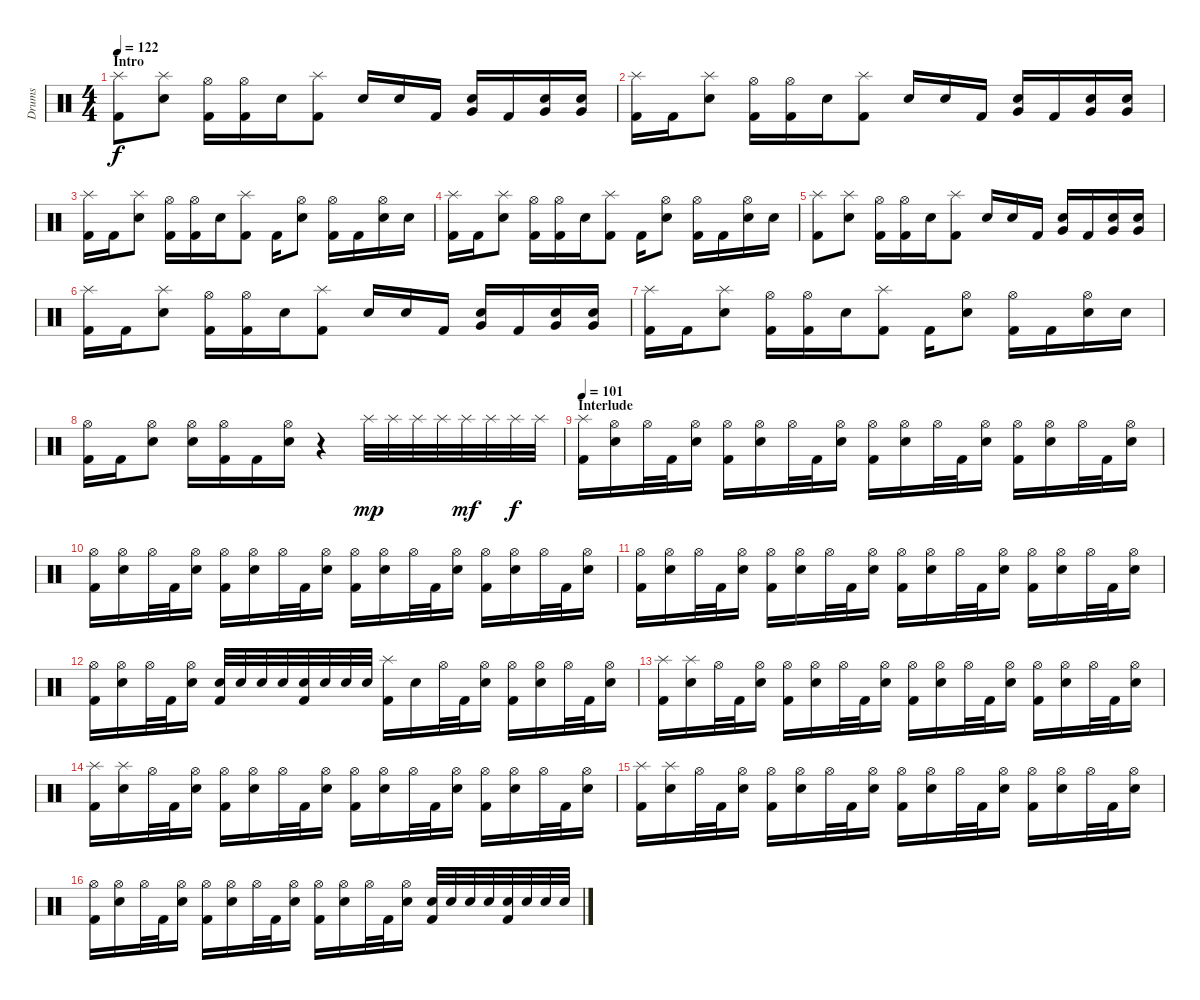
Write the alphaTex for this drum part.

\track ("Drums" "Drums") {instrument percussion}
\staff {score}
\articulation defaults
\ts (4 4)
\section ("" "Intro")
\tempo 122
\clef neutral
\ks c
("Splash (hit)" "Kick (hit) 2").8{dy f} ("Splash (hit)" "Electric Snare (hit)").8 ("Hi-Hat (open)" "Kick (hit) 2").16 ("Hi-Hat (open)" "Kick (hit) 2").16 "Electric Snare (hit)".16 ("Splash (hit)" "Kick (hit) 2").8 "Electric Snare (hit)".16 "Electric Snare (hit)".16 "Kick (hit) 2".16 ("Very Low Tom (hit)" "Electric Snare (hit)").16 "Kick (hit) 2".16 ("Very Low Tom (hit)" "Electric Snare (hit)").16 ("Very Low Tom (hit)" "Electric Snare (hit)").16 |
("Splash (hit)" "Kick (hit) 2").16 "Kick (hit) 2".16 ("Splash (hit)" "Electric Snare (hit)").8 ("Hi-Hat (open)" "Kick (hit) 2").16 ("Hi-Hat (open)" "Kick (hit) 2").16 "Electric Snare (hit)".16 ("Splash (hit)" "Kick (hit) 2").8 "Electric Snare (hit)".16 "Electric Snare (hit)".16 "Kick (hit) 2".16 ("Very Low Tom (hit)" "Electric Snare (hit)").16 "Kick (hit) 2".16 ("Very Low Tom (hit)" "Electric Snare (hit)").16 ("Very Low Tom (hit)" "Electric Snare (hit)").16 |
("Splash (hit)" "Kick (hit) 2").16 "Kick (hit) 2".16 ("Splash (hit)" "Electric Snare (hit)").8 ("Hi-Hat (open)" "Kick (hit) 2").16 ("Hi-Hat (open)" "Kick (hit) 2").16 "Electric Snare (hit)".16 ("Splash (hit)" "Kick (hit) 2").8 "Kick (hit) 2".16 ("Hi-Hat (open)" "Electric Snare (hit)").8 ("Hi-Hat (open)" "Kick (hit) 2").16 "Kick (hit) 2".16 ("Hi-Hat (open)" "Electric Snare (hit)").16 "Electric Snare (hit)".16 |
("Splash (hit)" "Kick (hit) 2").16 "Kick (hit) 2".16 ("Splash (hit)" "Electric Snare (hit)").8 ("Hi-Hat (open)" "Kick (hit) 2").16 ("Hi-Hat (open)" "Kick (hit) 2").16 "Electric Snare (hit)".16 ("Splash (hit)" "Kick (hit) 2").8 "Kick (hit) 2".16 ("Hi-Hat (open)" "Electric Snare (hit)").8 ("Hi-Hat (open)" "Kick (hit) 2").16 "Kick (hit) 2".16 ("Hi-Hat (open)" "Electric Snare (hit)").16 "Electric Snare (hit)".16 |
("Splash (hit)" "Kick (hit) 2").8 ("Splash (hit)" "Electric Snare (hit)").8 ("Hi-Hat (open)" "Kick (hit) 2").16 ("Hi-Hat (open)" "Kick (hit) 2").16 "Electric Snare (hit)".16 ("Splash (hit)" "Kick (hit) 2").8 "Electric Snare (hit)".16 "Electric Snare (hit)".16 "Kick (hit) 2".16 ("Very Low Tom (hit)" "Electric Snare (hit)").16 "Kick (hit) 2".16 ("Very Low Tom (hit)" "Electric Snare (hit)").16 ("Very Low Tom (hit)" "Electric Snare (hit)").16 |
("Splash (hit)" "Kick (hit) 2").16 "Kick (hit) 2".16 ("Splash (hit)" "Electric Snare (hit)").8 ("Hi-Hat (open)" "Kick (hit) 2").16 ("Hi-Hat (open)" "Kick (hit) 2").16 "Electric Snare (hit)".16 ("Splash (hit)" "Kick (hit) 2").8 "Electric Snare (hit)".16 "Electric Snare (hit)".16 "Kick (hit) 2".16 ("Very Low Tom (hit)" "Electric Snare (hit)").16 "Kick (hit) 2".16 ("Very Low Tom (hit)" "Electric Snare (hit)").16 ("Very Low Tom (hit)" "Electric Snare (hit)").16 |
("Splash (hit)" "Kick (hit) 2").16 "Kick (hit) 2".16 ("Splash (hit)" "Electric Snare (hit)").8 ("Hi-Hat (open)" "Kick (hit) 2").16 ("Hi-Hat (open)" "Kick (hit) 2").16 "Electric Snare (hit)".16 ("Splash (hit)" "Kick (hit) 2").8 "Kick (hit) 2".16 ("Hi-Hat (open)" "Electric Snare (hit)").8 ("Hi-Hat (open)" "Kick (hit) 2").16 "Kick (hit) 2".16 ("Hi-Hat (open)" "Electric Snare (hit)").16 "Electric Snare (hit)".16 |
("Hi-Hat (open)" "Kick (hit) 2").16 "Kick (hit) 2".16 ("Hi-Hat (open)" "Electric Snare (hit)").8 ("Hi-Hat (open)" "Electric Snare (hit)").16 ("Hi-Hat (open)" "Kick (hit) 2").16 "Kick (hit) 2".16 ("Hi-Hat (open)" "Electric Snare (hit)").16 r.4 "Splash (hit)".32{dy mp} "Splash (hit)".32 "Splash (hit)".32 "Splash (hit)".32 "Splash (hit)".32{dy mf} "Splash (hit)".32 "Splash (hit)".32{dy f} "Splash (hit)".32 |
\section ("" "Interlude")
\tempo 101
("Splash (hit)" "Kick (hit) 2").16 ("Hi-Hat (open)" "Electric Snare (hit)").16 "Hi-Hat (open)".32 "Kick (hit) 2".32 ("Hi-Hat (open)" "Electric Snare (hit)").16 ("Hi-Hat (open)" "Kick (hit) 2").16 ("Hi-Hat (open)" "Electric Snare (hit)").16 "Hi-Hat (open)".32 "Kick (hit) 2".32 ("Hi-Hat (open)" "Electric Snare (hit)").16 ("Hi-Hat (open)" "Kick (hit) 2").16 ("Hi-Hat (open)" "Electric Snare (hit)").16 "Hi-Hat (open)".32 "Kick (hit) 2".32 ("Hi-Hat (open)" "Electric Snare (hit)").16 ("Hi-Hat (open)" "Kick (hit) 2").16 ("Hi-Hat (open)" "Electric Snare (hit)").16 "Hi-Hat (open)".32 "Kick (hit) 2".32 ("Hi-Hat (open)" "Electric Snare (hit)").16 |
("Hi-Hat (open)" "Kick (hit) 2").16 ("Hi-Hat (open)" "Electric Snare (hit)").16 "Hi-Hat (open)".32 "Kick (hit) 2".32 ("Hi-Hat (open)" "Electric Snare (hit)").16 ("Hi-Hat (open)" "Kick (hit) 2").16 ("Hi-Hat (open)" "Electric Snare (hit)").16 "Hi-Hat (open)".32 "Kick (hit) 2".32 ("Hi-Hat (open)" "Electric Snare (hit)").16 ("Hi-Hat (open)" "Kick (hit) 2").16 ("Hi-Hat (open)" "Electric Snare (hit)").16 "Hi-Hat (open)".32 "Kick (hit) 2".32 ("Hi-Hat (open)" "Electric Snare (hit)").16 ("Hi-Hat (open)" "Kick (hit) 2").16 ("Hi-Hat (open)" "Electric Snare (hit)").16 "Hi-Hat (open)".32 "Kick (hit) 2".32 ("Hi-Hat (open)" "Electric Snare (hit)").16 |
("Hi-Hat (open)" "Kick (hit) 2").16 ("Hi-Hat (open)" "Electric Snare (hit)").16 "Hi-Hat (open)".32 "Kick (hit) 2".32 ("Hi-Hat (open)" "Electric Snare (hit)").16 ("Hi-Hat (open)" "Kick (hit) 2").16 ("Hi-Hat (open)" "Electric Snare (hit)").16 "Hi-Hat (open)".32 "Kick (hit) 2".32 ("Hi-Hat (open)" "Electric Snare (hit)").16 ("Hi-Hat (open)" "Kick (hit) 2").16 ("Hi-Hat (open)" "Electric Snare (hit)").16 "Hi-Hat (open)".32 "Kick (hit) 2".32 ("Hi-Hat (open)" "Electric Snare (hit)").16 ("Hi-Hat (open)" "Kick (hit) 2").16 ("Hi-Hat (open)" "Electric Snare (hit)").16 "Hi-Hat (open)".32 "Kick (hit) 2".32 ("Hi-Hat (open)" "Electric Snare (hit)").16 |
("Hi-Hat (open)" "Kick (hit) 2").16 ("Hi-Hat (open)" "Electric Snare (hit)").16 "Hi-Hat (open)".32 "Kick (hit) 2".32 ("Hi-Hat (open)" "Electric Snare (hit)").16 ("Electric Snare (hit)" "Kick (hit) 2").32 "Electric Snare (hit)".32 "Electric Snare (hit)".32 "Electric Snare (hit)".32 ("Electric Snare (hit)" "Kick (hit) 2").32 "Electric Snare (hit)".32 "Electric Snare (hit)".32 "Electric Snare (hit)".32 ("Splash (hit)" "Kick (hit) 2").16 "Electric Snare (hit)".16 "Hi-Hat (open)".32 "Kick (hit) 2".32 ("Hi-Hat (open)" "Electric Snare (hit)").16 ("Hi-Hat (open)" "Kick (hit) 2").16 ("Hi-Hat (open)" "Electric Snare (hit)").16 "Hi-Hat (open)".32 "Kick (hit) 2".32 ("Hi-Hat (open)" "Electric Snare (hit)").16 |
("Splash (hit)" "Kick (hit) 2").16 ("Splash (hit)" "Electric Snare (hit)").16 "Hi-Hat (open)".32 "Kick (hit) 2".32 ("Hi-Hat (open)" "Electric Snare (hit)").16 ("Hi-Hat (open)" "Kick (hit) 2").16 ("Hi-Hat (open)" "Electric Snare (hit)").16 "Hi-Hat (open)".32 "Kick (hit) 2".32 ("Hi-Hat (open)" "Electric Snare (hit)").16 ("Hi-Hat (open)" "Kick (hit) 2").16 ("Hi-Hat (open)" "Electric Snare (hit)").16 "Hi-Hat (open)".32 "Kick (hit) 2".32 ("Hi-Hat (open)" "Electric Snare (hit)").16 ("Hi-Hat (open)" "Kick (hit) 2").16 ("Hi-Hat (open)" "Electric Snare (hit)").16 "Hi-Hat (open)".32 "Kick (hit) 2".32 ("Hi-Hat (open)" "Electric Snare (hit)").16 |
("Splash (hit)" "Kick (hit) 2").16 ("Splash (hit)" "Electric Snare (hit)").16 "Hi-Hat (open)".32 "Kick (hit) 2".32 ("Hi-Hat (open)" "Electric Snare (hit)").16 ("Hi-Hat (open)" "Kick (hit) 2").16 ("Hi-Hat (open)" "Electric Snare (hit)").16 "Hi-Hat (open)".32 "Kick (hit) 2".32 ("Hi-Hat (open)" "Electric Snare (hit)").16 ("Hi-Hat (open)" "Kick (hit) 2").16 ("Hi-Hat (open)" "Electric Snare (hit)").16 "Hi-Hat (open)".32 "Kick (hit) 2".32 ("Hi-Hat (open)" "Electric Snare (hit)").16 ("Hi-Hat (open)" "Kick (hit) 2").16 ("Hi-Hat (open)" "Electric Snare (hit)").16 "Hi-Hat (open)".32 "Kick (hit) 2".32 ("Hi-Hat (open)" "Electric Snare (hit)").16 |
("Splash (hit)" "Kick (hit) 2").16 ("Splash (hit)" "Electric Snare (hit)").16 "Hi-Hat (open)".32 "Kick (hit) 2".32 ("Hi-Hat (open)" "Electric Snare (hit)").16 ("Hi-Hat (open)" "Kick (hit) 2").16 ("Hi-Hat (open)" "Electric Snare (hit)").16 "Hi-Hat (open)".32 "Kick (hit) 2".32 ("Hi-Hat (open)" "Electric Snare (hit)").16 ("Hi-Hat (open)" "Kick (hit) 2").16 ("Hi-Hat (open)" "Electric Snare (hit)").16 "Hi-Hat (open)".32 "Kick (hit) 2".32 ("Hi-Hat (open)" "Electric Snare (hit)").16 ("Hi-Hat (open)" "Kick (hit) 2").16 ("Hi-Hat (open)" "Electric Snare (hit)").16 "Hi-Hat (open)".32 "Kick (hit) 2".32 ("Hi-Hat (open)" "Electric Snare (hit)").16 |
("Hi-Hat (open)" "Kick (hit) 2").16 ("Hi-Hat (open)" "Electric Snare (hit)").16 "Hi-Hat (open)".32 "Kick (hit) 2".32 ("Hi-Hat (open)" "Electric Snare (hit)").16 ("Hi-Hat (open)" "Kick (hit) 2").16 ("Hi-Hat (open)" "Electric Snare (hit)").16 "Hi-Hat (open)".32 "Kick (hit) 2".32 ("Hi-Hat (open)" "Electric Snare (hit)").16 ("Hi-Hat (open)" "Kick (hit) 2").16 ("Hi-Hat (open)" "Electric Snare (hit)").16 "Hi-Hat (open)".32 "Kick (hit) 2".32 ("Hi-Hat (open)" "Electric Snare (hit)").16 ("Electric Snare (hit)" "Kick (hit) 2").32 "Electric Snare (hit)".32 "Electric Snare (hit)".32 "Electric Snare (hit)".32 ("Electric Snare (hit)" "Kick (hit) 2").32 "Electric Snare (hit)".32 "Electric Snare (hit)".32 "Electric Snare (hit)".32
